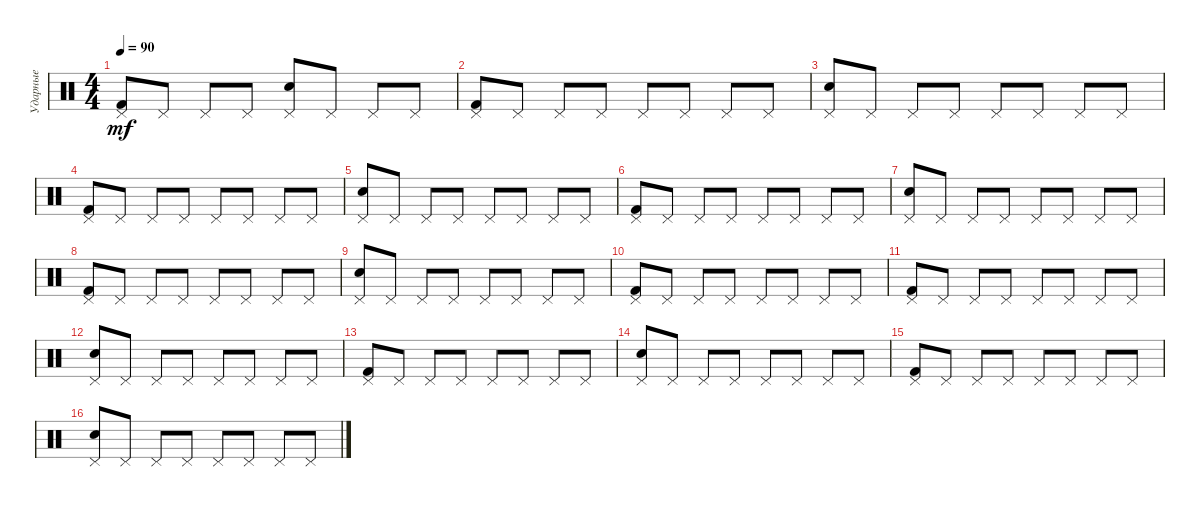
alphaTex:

\track ("Ударные" "Ударные") {instrument percussion}
\staff {score}
\articulation defaults
\ts (4 4)
\tempo 90
\clef neutral
\ks c
("Pedal Hi-Hat (hit)" "Kick (hit) 2").8{dy mf} "Pedal Hi-Hat (hit)".8 "Pedal Hi-Hat (hit)".8 "Pedal Hi-Hat (hit)".8 ("Pedal Hi-Hat (hit)" "Snare (hit) 2").8 "Pedal Hi-Hat (hit)".8 "Pedal Hi-Hat (hit)".8 "Pedal Hi-Hat (hit)".8 |
("Pedal Hi-Hat (hit)" "Kick (hit) 2").8 "Pedal Hi-Hat (hit)".8 "Pedal Hi-Hat (hit)".8 "Pedal Hi-Hat (hit)".8 "Pedal Hi-Hat (hit)".8 "Pedal Hi-Hat (hit)".8 "Pedal Hi-Hat (hit)".8 "Pedal Hi-Hat (hit)".8 |
("Pedal Hi-Hat (hit)" "Snare (hit) 2").8 "Pedal Hi-Hat (hit)".8 "Pedal Hi-Hat (hit)".8 "Pedal Hi-Hat (hit)".8 "Pedal Hi-Hat (hit)".8 "Pedal Hi-Hat (hit)".8 "Pedal Hi-Hat (hit)".8 "Pedal Hi-Hat (hit)".8 |
("Pedal Hi-Hat (hit)" "Kick (hit) 2").8 "Pedal Hi-Hat (hit)".8 "Pedal Hi-Hat (hit)".8 "Pedal Hi-Hat (hit)".8 "Pedal Hi-Hat (hit)".8 "Pedal Hi-Hat (hit)".8 "Pedal Hi-Hat (hit)".8 "Pedal Hi-Hat (hit)".8 |
("Pedal Hi-Hat (hit)" "Snare (hit) 2").8 "Pedal Hi-Hat (hit)".8 "Pedal Hi-Hat (hit)".8 "Pedal Hi-Hat (hit)".8 "Pedal Hi-Hat (hit)".8 "Pedal Hi-Hat (hit)".8 "Pedal Hi-Hat (hit)".8 "Pedal Hi-Hat (hit)".8 |
("Pedal Hi-Hat (hit)" "Kick (hit) 2").8 "Pedal Hi-Hat (hit)".8 "Pedal Hi-Hat (hit)".8 "Pedal Hi-Hat (hit)".8 "Pedal Hi-Hat (hit)".8 "Pedal Hi-Hat (hit)".8 "Pedal Hi-Hat (hit)".8 "Pedal Hi-Hat (hit)".8 |
("Pedal Hi-Hat (hit)" "Snare (hit) 2").8 "Pedal Hi-Hat (hit)".8 "Pedal Hi-Hat (hit)".8 "Pedal Hi-Hat (hit)".8 "Pedal Hi-Hat (hit)".8 "Pedal Hi-Hat (hit)".8 "Pedal Hi-Hat (hit)".8 "Pedal Hi-Hat (hit)".8 |
("Pedal Hi-Hat (hit)" "Kick (hit) 2").8 "Pedal Hi-Hat (hit)".8 "Pedal Hi-Hat (hit)".8 "Pedal Hi-Hat (hit)".8 "Pedal Hi-Hat (hit)".8 "Pedal Hi-Hat (hit)".8 "Pedal Hi-Hat (hit)".8 "Pedal Hi-Hat (hit)".8 |
("Pedal Hi-Hat (hit)" "Snare (hit) 2").8 "Pedal Hi-Hat (hit)".8 "Pedal Hi-Hat (hit)".8 "Pedal Hi-Hat (hit)".8 "Pedal Hi-Hat (hit)".8 "Pedal Hi-Hat (hit)".8 "Pedal Hi-Hat (hit)".8 "Pedal Hi-Hat (hit)".8 |
("Pedal Hi-Hat (hit)" "Kick (hit) 2").8 "Pedal Hi-Hat (hit)".8 "Pedal Hi-Hat (hit)".8 "Pedal Hi-Hat (hit)".8 "Pedal Hi-Hat (hit)".8 "Pedal Hi-Hat (hit)".8 "Pedal Hi-Hat (hit)".8 "Pedal Hi-Hat (hit)".8 |
("Pedal Hi-Hat (hit)" "Kick (hit) 2").8 "Pedal Hi-Hat (hit)".8 "Pedal Hi-Hat (hit)".8 "Pedal Hi-Hat (hit)".8 "Pedal Hi-Hat (hit)".8 "Pedal Hi-Hat (hit)".8 "Pedal Hi-Hat (hit)".8 "Pedal Hi-Hat (hit)".8 |
("Pedal Hi-Hat (hit)" "Snare (hit) 2").8 "Pedal Hi-Hat (hit)".8 "Pedal Hi-Hat (hit)".8 "Pedal Hi-Hat (hit)".8 "Pedal Hi-Hat (hit)".8 "Pedal Hi-Hat (hit)".8 "Pedal Hi-Hat (hit)".8 "Pedal Hi-Hat (hit)".8 |
("Pedal Hi-Hat (hit)" "Kick (hit) 2").8 "Pedal Hi-Hat (hit)".8 "Pedal Hi-Hat (hit)".8 "Pedal Hi-Hat (hit)".8 "Pedal Hi-Hat (hit)".8 "Pedal Hi-Hat (hit)".8 "Pedal Hi-Hat (hit)".8 "Pedal Hi-Hat (hit)".8 |
("Pedal Hi-Hat (hit)" "Snare (hit) 2").8 "Pedal Hi-Hat (hit)".8 "Pedal Hi-Hat (hit)".8 "Pedal Hi-Hat (hit)".8 "Pedal Hi-Hat (hit)".8 "Pedal Hi-Hat (hit)".8 "Pedal Hi-Hat (hit)".8 "Pedal Hi-Hat (hit)".8 |
("Pedal Hi-Hat (hit)" "Kick (hit) 2").8 "Pedal Hi-Hat (hit)".8 "Pedal Hi-Hat (hit)".8 "Pedal Hi-Hat (hit)".8 "Pedal Hi-Hat (hit)".8 "Pedal Hi-Hat (hit)".8 "Pedal Hi-Hat (hit)".8 "Pedal Hi-Hat (hit)".8 |
("Pedal Hi-Hat (hit)" "Snare (hit) 2").8 "Pedal Hi-Hat (hit)".8 "Pedal Hi-Hat (hit)".8 "Pedal Hi-Hat (hit)".8 "Pedal Hi-Hat (hit)".8 "Pedal Hi-Hat (hit)".8 "Pedal Hi-Hat (hit)".8 "Pedal Hi-Hat (hit)".8
